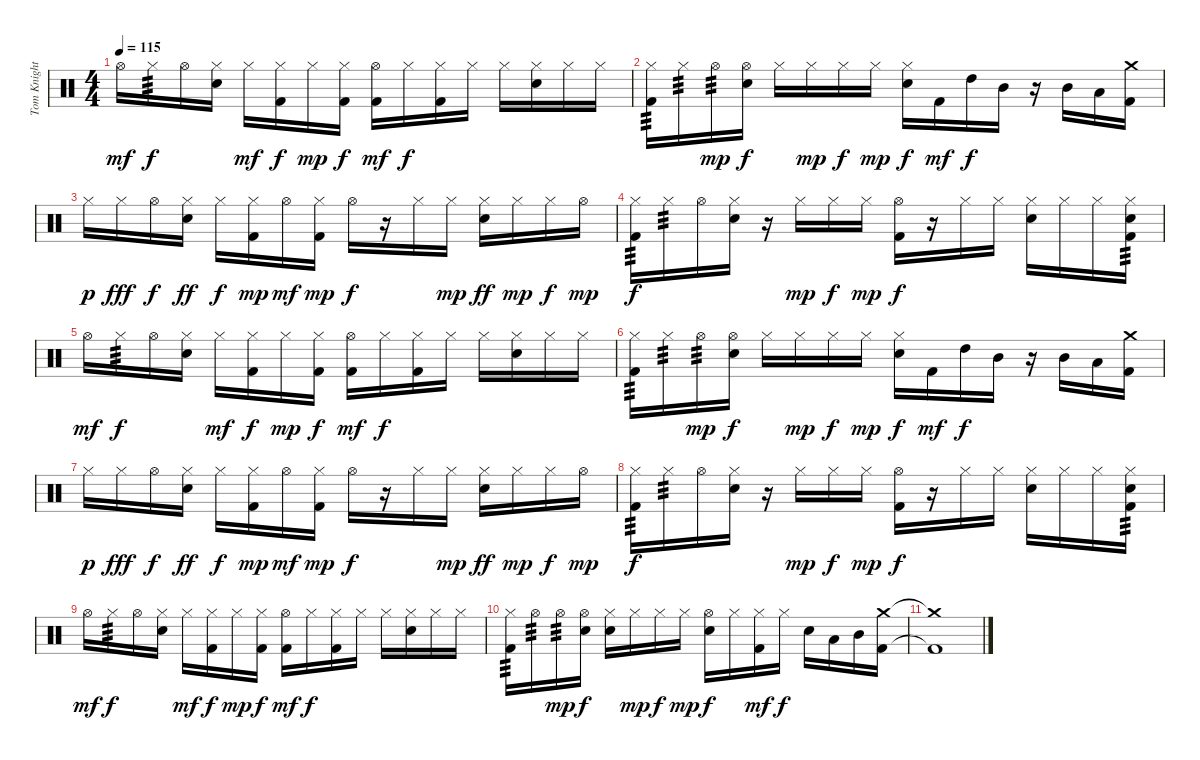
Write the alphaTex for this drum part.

\track ("Tom Knight" "Tom Knight") {instrument percussion}
\staff {score}
\articulation defaults
\ts (4 4)
\tempo 115
\clef neutral
\ks c "Hi-Hat (open)".16{dy mf} "Hi-Hat (closed)".16{tp 3 dy f} "Hi-Hat (open)".16
("Hi-Hat (closed)" "Electric Snare (hit)").16 "Hi-Hat (closed)".16{dy mf} ("Hi-Hat (closed)" "Kick (hit) 2").16{dy f} "Hi-Hat (closed)".16{dy mp} ("Hi-Hat (closed)" "Kick (hit) 2").16{dy f} ("Hi-Hat (open)" "Kick (hit) 2").16{dy mf} "Hi-Hat (closed)".16{dy f} ("Hi-Hat (closed)" "Kick (hit) 2").16 "Hi-Hat (closed)".16 "Hi-Hat (closed)".16 ("Hi-Hat (closed)" "Electric Snare (hit)").16 "Hi-Hat (closed)".16 "Hi-Hat (closed)".16 |
("Hi-Hat (closed)" "Kick (hit) 2").16{tp 3} "Hi-Hat (closed)".16{tp 3} "Hi-Hat (open)".16{tp 3 dy mp} ("Hi-Hat (open)" "Electric Snare (hit)").16{dy f} "Hi-Hat (closed)".16 "Hi-Hat (closed)".16{dy mp} "Hi-Hat (closed)".16{dy f} "Hi-Hat (closed)".16{dy mp} ("Hi-Hat (closed)" "Electric Snare (hit)").16{dy f} "Kick (hit) 2".16{dy mf} "High Tom (hit)".16{dy f} "Mid Tom (hit)".16 r.16 "Mid Tom (hit)".16 "Low Tom (hit)".16 ("Crash medium (hit)" "Kick (hit) 2").16 |
"Hi-Hat (closed)".16{dy p} "Hi-Hat (closed)".16{dy fff} "Hi-Hat (open)".16{dy f} ("Hi-Hat (closed)" "Electric Snare (hit)").16{dy ff} "Hi-Hat (closed)".16{dy f} ("Hi-Hat (closed)" "Kick (hit) 2").16{dy mp} "Hi-Hat (open)".16{dy mf} ("Hi-Hat (closed)" "Kick (hit) 2").16{dy mp} "Hi-Hat (open)".16{dy f} r.16 "Hi-Hat (closed)".16 "Hi-Hat (closed)".16{dy mp} ("Hi-Hat (closed)" "Electric Snare (hit)").16{dy ff} "Hi-Hat (closed)".16{dy mp} "Hi-Hat (closed)".16{dy f} "Hi-Hat (open)".16{dy mp} |
("Hi-Hat (closed)" "Kick (hit) 2").16{tp 3 dy f} "Hi-Hat (closed)".16{tp 3} "Hi-Hat (open)".16 ("Hi-Hat (closed)" "Electric Snare (hit)").16 r.16 "Hi-Hat (closed)".16{dy mp} "Hi-Hat (closed)".16{dy f} "Hi-Hat (closed)".16{dy mp} ("Hi-Hat (open)" "Kick (hit) 2").16{dy f} r.16 "Hi-Hat (closed)".16 "Hi-Hat (closed)".16 ("Hi-Hat (closed)" "Electric Snare (hit)").16 "Hi-Hat (closed)".16 "Hi-Hat (closed)".16 ("Hi-Hat (closed)" "Electric Snare (hit)" "Kick (hit) 2").16{tp 3} |
"Hi-Hat (open)".16{dy mf} "Hi-Hat (closed)".16{tp 3 dy f} "Hi-Hat (open)".16 ("Hi-Hat (closed)" "Electric Snare (hit)").16 "Hi-Hat (closed)".16{dy mf} ("Hi-Hat (closed)" "Kick (hit) 2").16{dy f} "Hi-Hat (closed)".16{dy mp} ("Hi-Hat (closed)" "Kick (hit) 2").16{dy f} ("Hi-Hat (open)" "Kick (hit) 2").16{dy mf} "Hi-Hat (closed)".16{dy f} ("Hi-Hat (closed)" "Kick (hit) 2").16 "Hi-Hat (closed)".16 "Hi-Hat (closed)".16 ("Hi-Hat (closed)" "Electric Snare (hit)").16 "Hi-Hat (closed)".16 "Hi-Hat (closed)".16 |
("Hi-Hat (closed)" "Kick (hit) 2").16{tp 3} "Hi-Hat (closed)".16{tp 3} "Hi-Hat (open)".16{tp 3 dy mp} ("Hi-Hat (open)" "Electric Snare (hit)").16{dy f} "Hi-Hat (closed)".16 "Hi-Hat (closed)".16{dy mp} "Hi-Hat (closed)".16{dy f} "Hi-Hat (closed)".16{dy mp} ("Hi-Hat (closed)" "Electric Snare (hit)").16{dy f} "Kick (hit) 2".16{dy mf} "High Tom (hit)".16{dy f} "Mid Tom (hit)".16 r.16 "Mid Tom (hit)".16 "Low Tom (hit)".16 ("Crash medium (hit)" "Kick (hit) 2").16 |
"Hi-Hat (closed)".16{dy p} "Hi-Hat (closed)".16{dy fff} "Hi-Hat (open)".16{dy f} ("Hi-Hat (closed)" "Electric Snare (hit)").16{dy ff} "Hi-Hat (closed)".16{dy f} ("Hi-Hat (closed)" "Kick (hit) 2").16{dy mp} "Hi-Hat (open)".16{dy mf} ("Hi-Hat (closed)" "Kick (hit) 2").16{dy mp} "Hi-Hat (open)".16{dy f} r.16 "Hi-Hat (closed)".16 "Hi-Hat (closed)".16{dy mp} ("Hi-Hat (closed)" "Electric Snare (hit)").16{dy ff} "Hi-Hat (closed)".16{dy mp} "Hi-Hat (closed)".16{dy f} "Hi-Hat (open)".16{dy mp} |
("Hi-Hat (closed)" "Kick (hit) 2").16{tp 3 dy f} "Hi-Hat (closed)".16{tp 3} "Hi-Hat (open)".16 ("Hi-Hat (closed)" "Electric Snare (hit)").16 r.16 "Hi-Hat (closed)".16{dy mp} "Hi-Hat (closed)".16{dy f} "Hi-Hat (closed)".16{dy mp} ("Hi-Hat (open)" "Kick (hit) 2").16{dy f} r.16 "Hi-Hat (closed)".16 "Hi-Hat (closed)".16 ("Hi-Hat (closed)" "Electric Snare (hit)").16 "Hi-Hat (closed)".16 "Hi-Hat (closed)".16 ("Hi-Hat (closed)" "Electric Snare (hit)" "Kick (hit) 2").16{tp 3} |
"Hi-Hat (open)".16{dy mf} "Hi-Hat (closed)".16{tp 3 dy f} "Hi-Hat (open)".16 ("Hi-Hat (closed)" "Electric Snare (hit)").16 "Hi-Hat (closed)".16{dy mf} ("Hi-Hat (closed)" "Kick (hit) 2").16{dy f} "Hi-Hat (closed)".16{dy mp} ("Hi-Hat (closed)" "Kick (hit) 2").16{dy f} ("Hi-Hat (open)" "Kick (hit) 2").16{dy mf} "Hi-Hat (closed)".16{dy f} ("Hi-Hat (closed)" "Kick (hit) 2").16 "Hi-Hat (closed)".16 "Hi-Hat (closed)".16 ("Hi-Hat (closed)" "Electric Snare (hit)").16 "Hi-Hat (closed)".16 "Hi-Hat (closed)".16 |
("Hi-Hat (closed)" "Kick (hit) 2").16{tp 3} "Hi-Hat (open)".16{tp 3} "Hi-Hat (open)".16{tp 3 dy mp} ("Hi-Hat (open)" "Electric Snare (hit)").16{dy f} ("Hi-Hat (closed)" "Electric Snare (hit)").16 "Hi-Hat (closed)".16{dy mp} "Hi-Hat (closed)".16{dy f} "Hi-Hat (closed)".16{dy mp} ("Hi-Hat (open)" "Electric Snare (hit)").16{dy f} "Hi-Hat (closed)".16 ("Hi-Hat (closed)" "Kick (hit) 2").16{dy mf} "Hi-Hat (closed)".16{dy f} "Electric Snare (hit)".16 "Low Tom (hit)".16 "Mid Tom (hit)".16 ("Crash medium (hit)" "Kick (hit) 2").16 |
("Crash medium (hit)"{t} "Kick (hit) 2"{t}).1
